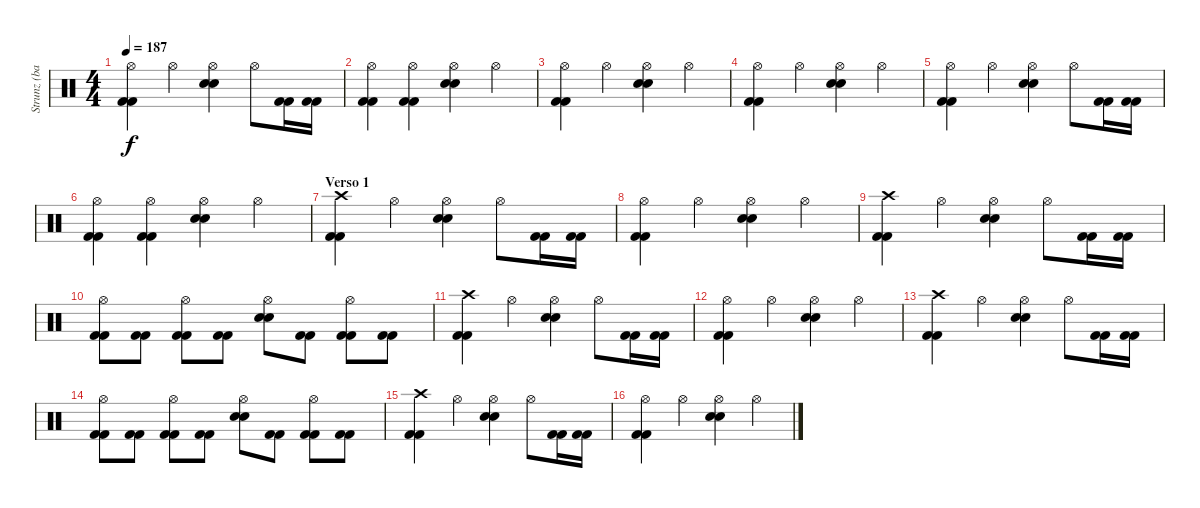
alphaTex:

\track ("Strunz (bateria)" "Strunz (ba") {instrument percussion}
\staff {score}
\articulation defaults
\ts (4 4)
\tempo 187
\clef neutral
\ks c
("Hi-Hat (open)" "Kick (hit) 2" "Kick (hit) 2").4{dy f} "Hi-Hat (open)".4 ("Hi-Hat (open)" "Snare (hit) 2" "Snare (hit) 2").4 "Hi-Hat (open)".8 ("Kick (hit) 2" "Kick (hit) 2").16 ("Kick (hit) 2" "Kick (hit) 2").16 |
("Hi-Hat (open)" "Kick (hit) 2" "Kick (hit) 2").4 ("Hi-Hat (open)" "Kick (hit) 2" "Kick (hit) 2").4 ("Hi-Hat (open)" "Snare (hit) 2" "Snare (hit) 2").4 "Hi-Hat (open)".4 |
("Hi-Hat (open)" "Kick (hit) 2" "Kick (hit) 2").4 "Hi-Hat (open)".4 ("Hi-Hat (open)" "Snare (hit) 2" "Snare (hit) 2").4 "Hi-Hat (open)".4 |
("Hi-Hat (open)" "Kick (hit) 2" "Kick (hit) 2").4 "Hi-Hat (open)".4 ("Hi-Hat (open)" "Snare (hit) 2" "Snare (hit) 2").4 "Hi-Hat (open)".4 |
("Hi-Hat (open)" "Kick (hit) 2" "Kick (hit) 2").4 "Hi-Hat (open)".4 ("Hi-Hat (open)" "Snare (hit) 2" "Snare (hit) 2").4 "Hi-Hat (open)".8 ("Kick (hit) 2" "Kick (hit) 2").16 ("Kick (hit) 2" "Kick (hit) 2").16 |
("Hi-Hat (open)" "Kick (hit) 2" "Kick (hit) 2").4 ("Hi-Hat (open)" "Kick (hit) 2" "Kick (hit) 2").4 ("Hi-Hat (open)" "Snare (hit) 2" "Snare (hit) 2").4 "Hi-Hat (open)".4 |
\section ("" "Verso 1")
("Crash high (hit)" "Kick (hit) 2" "Kick (hit) 2").4 "Hi-Hat (open)".4 ("Hi-Hat (open)" "Snare (hit) 2" "Snare (hit) 2").4 "Hi-Hat (open)".8 ("Kick (hit) 2" "Kick (hit) 2").16 ("Kick (hit) 2" "Kick (hit) 2").16 |
("Hi-Hat (open)" "Kick (hit) 2" "Kick (hit) 2").4 "Hi-Hat (open)".4 ("Hi-Hat (open)" "Snare (hit) 2" "Snare (hit) 2").4 "Hi-Hat (open)".4 |
("Crash high (hit)" "Kick (hit) 2" "Kick (hit) 2").4 "Hi-Hat (open)".4 ("Hi-Hat (open)" "Snare (hit) 2" "Snare (hit) 2").4 "Hi-Hat (open)".8 ("Kick (hit) 2" "Kick (hit) 2").16 ("Kick (hit) 2" "Kick (hit) 2").16 |
("Hi-Hat (open)" "Kick (hit) 2" "Kick (hit) 2").8 ("Kick (hit) 2" "Kick (hit) 2").8 ("Hi-Hat (open)" "Kick (hit) 2" "Kick (hit) 2").8 ("Kick (hit) 2" "Kick (hit) 2").8 ("Hi-Hat (open)" "Snare (hit) 2" "Snare (hit) 2").8 ("Kick (hit) 2" "Kick (hit) 2").8 ("Hi-Hat (open)" "Kick (hit) 2" "Kick (hit) 2").8 ("Kick (hit) 2" "Kick (hit) 2").8 |
("Crash high (hit)" "Kick (hit) 2" "Kick (hit) 2").4 "Hi-Hat (open)".4 ("Hi-Hat (open)" "Snare (hit) 2" "Snare (hit) 2").4 "Hi-Hat (open)".8 ("Kick (hit) 2" "Kick (hit) 2").16 ("Kick (hit) 2" "Kick (hit) 2").16 |
("Hi-Hat (open)" "Kick (hit) 2" "Kick (hit) 2").4 "Hi-Hat (open)".4 ("Hi-Hat (open)" "Snare (hit) 2" "Snare (hit) 2").4 "Hi-Hat (open)".4 |
("Crash high (hit)" "Kick (hit) 2" "Kick (hit) 2").4 "Hi-Hat (open)".4 ("Hi-Hat (open)" "Snare (hit) 2" "Snare (hit) 2").4 "Hi-Hat (open)".8 ("Kick (hit) 2" "Kick (hit) 2").16 ("Kick (hit) 2" "Kick (hit) 2").16 |
("Hi-Hat (open)" "Kick (hit) 2" "Kick (hit) 2").8 ("Kick (hit) 2" "Kick (hit) 2").8 ("Hi-Hat (open)" "Kick (hit) 2" "Kick (hit) 2").8 ("Kick (hit) 2" "Kick (hit) 2").8 ("Hi-Hat (open)" "Snare (hit) 2" "Snare (hit) 2").8 ("Kick (hit) 2" "Kick (hit) 2").8 ("Hi-Hat (open)" "Kick (hit) 2" "Kick (hit) 2").8 ("Kick (hit) 2" "Kick (hit) 2").8 |
("Crash high (hit)" "Kick (hit) 2" "Kick (hit) 2").4 "Hi-Hat (open)".4 ("Hi-Hat (open)" "Snare (hit) 2" "Snare (hit) 2").4 "Hi-Hat (open)".8 ("Kick (hit) 2" "Kick (hit) 2").16 ("Kick (hit) 2" "Kick (hit) 2").16 |
("Hi-Hat (open)" "Kick (hit) 2" "Kick (hit) 2").4 "Hi-Hat (open)".4 ("Hi-Hat (open)" "Snare (hit) 2" "Snare (hit) 2").4 "Hi-Hat (open)".4
